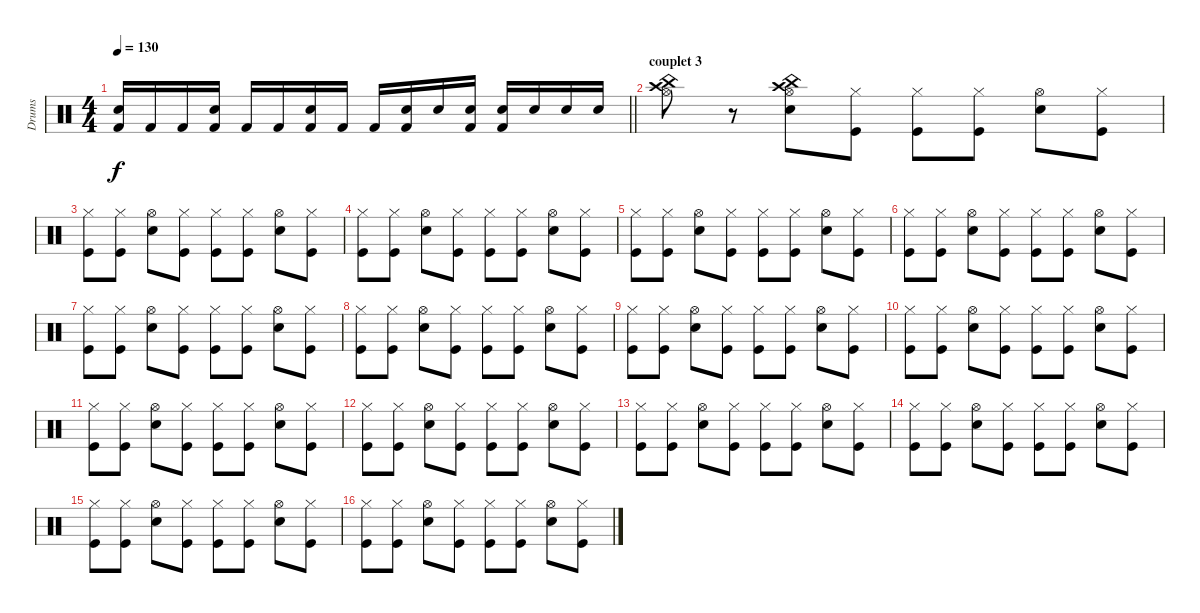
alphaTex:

\track ("Drums" "Drums") {instrument percussion}
\staff {score}
\articulation defaults
\ts (4 4)
\tempo 130
\clef neutral
\barLineRight lightlight
\ks c
("Kick (hit) 2" "Snare (hit) 2").16{dy f} "Kick (hit) 2".16 "Kick (hit) 2".16 ("Kick (hit) 2" "Snare (hit) 2").16 "Kick (hit) 2".16 "Kick (hit) 2".16 ("Kick (hit) 2" "Snare (hit) 2").16 "Kick (hit) 2".16 "Kick (hit) 2".16 ("Kick (hit) 2" "Snare (hit) 2").16 "Snare (hit) 2".16 ("Kick (hit) 2" "Snare (hit) 2").16 ("Kick (hit) 2" "Snare (hit) 2").16 "Snare (hit) 2".16 "Snare (hit) 2".16 "Snare (hit) 2".16 |
\section ("" "couplet 3")
("Hi-Hat (open)" "Crash high (hit)" "China (hit)").8 r.8 ("Snare (hit) 2" "Hi-Hat (open)" "Crash high (hit)" "China (hit)").8 ("Hi-Hat (closed)" "Kick (hit)").8 ("Hi-Hat (closed)" "Kick (hit)").8 ("Hi-Hat (closed)" "Kick (hit)").8 ("Hi-Hat (open)" "Snare (hit) 2").8 ("Hi-Hat (closed)" "Kick (hit)").8 |
("Hi-Hat (closed)" "Kick (hit)").8 ("Hi-Hat (closed)" "Kick (hit)").8 ("Hi-Hat (open)" "Snare (hit) 2").8 ("Hi-Hat (closed)" "Kick (hit)").8 ("Hi-Hat (closed)" "Kick (hit)").8 ("Hi-Hat (closed)" "Kick (hit)").8 ("Hi-Hat (open)" "Snare (hit) 2").8 ("Hi-Hat (closed)" "Kick (hit)").8 |
("Hi-Hat (closed)" "Kick (hit)").8 ("Hi-Hat (closed)" "Kick (hit)").8 ("Hi-Hat (open)" "Snare (hit) 2").8 ("Hi-Hat (closed)" "Kick (hit)").8 ("Hi-Hat (closed)" "Kick (hit)").8 ("Hi-Hat (closed)" "Kick (hit)").8 ("Hi-Hat (open)" "Snare (hit) 2").8 ("Hi-Hat (closed)" "Kick (hit)").8 |
("Hi-Hat (closed)" "Kick (hit)").8 ("Hi-Hat (closed)" "Kick (hit)").8 ("Hi-Hat (open)" "Snare (hit) 2").8 ("Hi-Hat (closed)" "Kick (hit)").8 ("Hi-Hat (closed)" "Kick (hit)").8 ("Hi-Hat (closed)" "Kick (hit)").8 ("Hi-Hat (open)" "Snare (hit) 2").8 ("Hi-Hat (closed)" "Kick (hit)").8 |
("Hi-Hat (closed)" "Kick (hit)").8 ("Hi-Hat (closed)" "Kick (hit)").8 ("Hi-Hat (open)" "Snare (hit) 2").8 ("Hi-Hat (closed)" "Kick (hit)").8 ("Hi-Hat (closed)" "Kick (hit)").8 ("Hi-Hat (closed)" "Kick (hit)").8 ("Hi-Hat (open)" "Snare (hit) 2").8 ("Hi-Hat (closed)" "Kick (hit)").8 |
("Hi-Hat (closed)" "Kick (hit)").8 ("Hi-Hat (closed)" "Kick (hit)").8 ("Hi-Hat (open)" "Snare (hit) 2").8 ("Hi-Hat (closed)" "Kick (hit)").8 ("Hi-Hat (closed)" "Kick (hit)").8 ("Hi-Hat (closed)" "Kick (hit)").8 ("Hi-Hat (open)" "Snare (hit) 2").8 ("Hi-Hat (closed)" "Kick (hit)").8 |
("Hi-Hat (closed)" "Kick (hit)").8 ("Hi-Hat (closed)" "Kick (hit)").8 ("Hi-Hat (open)" "Snare (hit) 2").8 ("Hi-Hat (closed)" "Kick (hit)").8 ("Hi-Hat (closed)" "Kick (hit)").8 ("Hi-Hat (closed)" "Kick (hit)").8 ("Hi-Hat (open)" "Snare (hit) 2").8 ("Hi-Hat (closed)" "Kick (hit)").8 |
("Hi-Hat (closed)" "Kick (hit)").8 ("Hi-Hat (closed)" "Kick (hit)").8 ("Hi-Hat (open)" "Snare (hit) 2").8 ("Hi-Hat (closed)" "Kick (hit)").8 ("Hi-Hat (closed)" "Kick (hit)").8 ("Hi-Hat (closed)" "Kick (hit)").8 ("Hi-Hat (open)" "Snare (hit) 2").8 ("Hi-Hat (closed)" "Kick (hit)").8 |
("Hi-Hat (closed)" "Kick (hit)").8 ("Hi-Hat (closed)" "Kick (hit)").8 ("Hi-Hat (open)" "Snare (hit) 2").8 ("Hi-Hat (closed)" "Kick (hit)").8 ("Hi-Hat (closed)" "Kick (hit)").8 ("Hi-Hat (closed)" "Kick (hit)").8 ("Hi-Hat (open)" "Snare (hit) 2").8 ("Hi-Hat (closed)" "Kick (hit)").8 |
("Hi-Hat (closed)" "Kick (hit)").8 ("Hi-Hat (closed)" "Kick (hit)").8 ("Hi-Hat (open)" "Snare (hit) 2").8 ("Hi-Hat (closed)" "Kick (hit)").8 ("Hi-Hat (closed)" "Kick (hit)").8 ("Hi-Hat (closed)" "Kick (hit)").8 ("Hi-Hat (open)" "Snare (hit) 2").8 ("Hi-Hat (closed)" "Kick (hit)").8 |
("Hi-Hat (closed)" "Kick (hit)").8 ("Hi-Hat (closed)" "Kick (hit)").8 ("Hi-Hat (open)" "Snare (hit) 2").8 ("Hi-Hat (closed)" "Kick (hit)").8 ("Hi-Hat (closed)" "Kick (hit)").8 ("Hi-Hat (closed)" "Kick (hit)").8 ("Hi-Hat (open)" "Snare (hit) 2").8 ("Hi-Hat (closed)" "Kick (hit)").8 |
("Hi-Hat (closed)" "Kick (hit)").8 ("Hi-Hat (closed)" "Kick (hit)").8 ("Hi-Hat (open)" "Snare (hit) 2").8 ("Hi-Hat (closed)" "Kick (hit)").8 ("Hi-Hat (closed)" "Kick (hit)").8 ("Hi-Hat (closed)" "Kick (hit)").8 ("Hi-Hat (open)" "Snare (hit) 2").8 ("Hi-Hat (closed)" "Kick (hit)").8 |
("Hi-Hat (closed)" "Kick (hit)").8 ("Hi-Hat (closed)" "Kick (hit)").8 ("Hi-Hat (open)" "Snare (hit) 2").8 ("Hi-Hat (closed)" "Kick (hit)").8 ("Hi-Hat (closed)" "Kick (hit)").8 ("Hi-Hat (closed)" "Kick (hit)").8 ("Hi-Hat (open)" "Snare (hit) 2").8 ("Hi-Hat (closed)" "Kick (hit)").8 |
("Hi-Hat (closed)" "Kick (hit)").8 ("Hi-Hat (closed)" "Kick (hit)").8 ("Hi-Hat (open)" "Snare (hit) 2").8 ("Hi-Hat (closed)" "Kick (hit)").8 ("Hi-Hat (closed)" "Kick (hit)").8 ("Hi-Hat (closed)" "Kick (hit)").8 ("Hi-Hat (open)" "Snare (hit) 2").8 ("Hi-Hat (closed)" "Kick (hit)").8 |
("Hi-Hat (closed)" "Kick (hit)").8 ("Hi-Hat (closed)" "Kick (hit)").8 ("Hi-Hat (open)" "Snare (hit) 2").8 ("Hi-Hat (closed)" "Kick (hit)").8 ("Hi-Hat (closed)" "Kick (hit)").8 ("Hi-Hat (closed)" "Kick (hit)").8 ("Hi-Hat (open)" "Snare (hit) 2").8 ("Hi-Hat (closed)" "Kick (hit)").8
